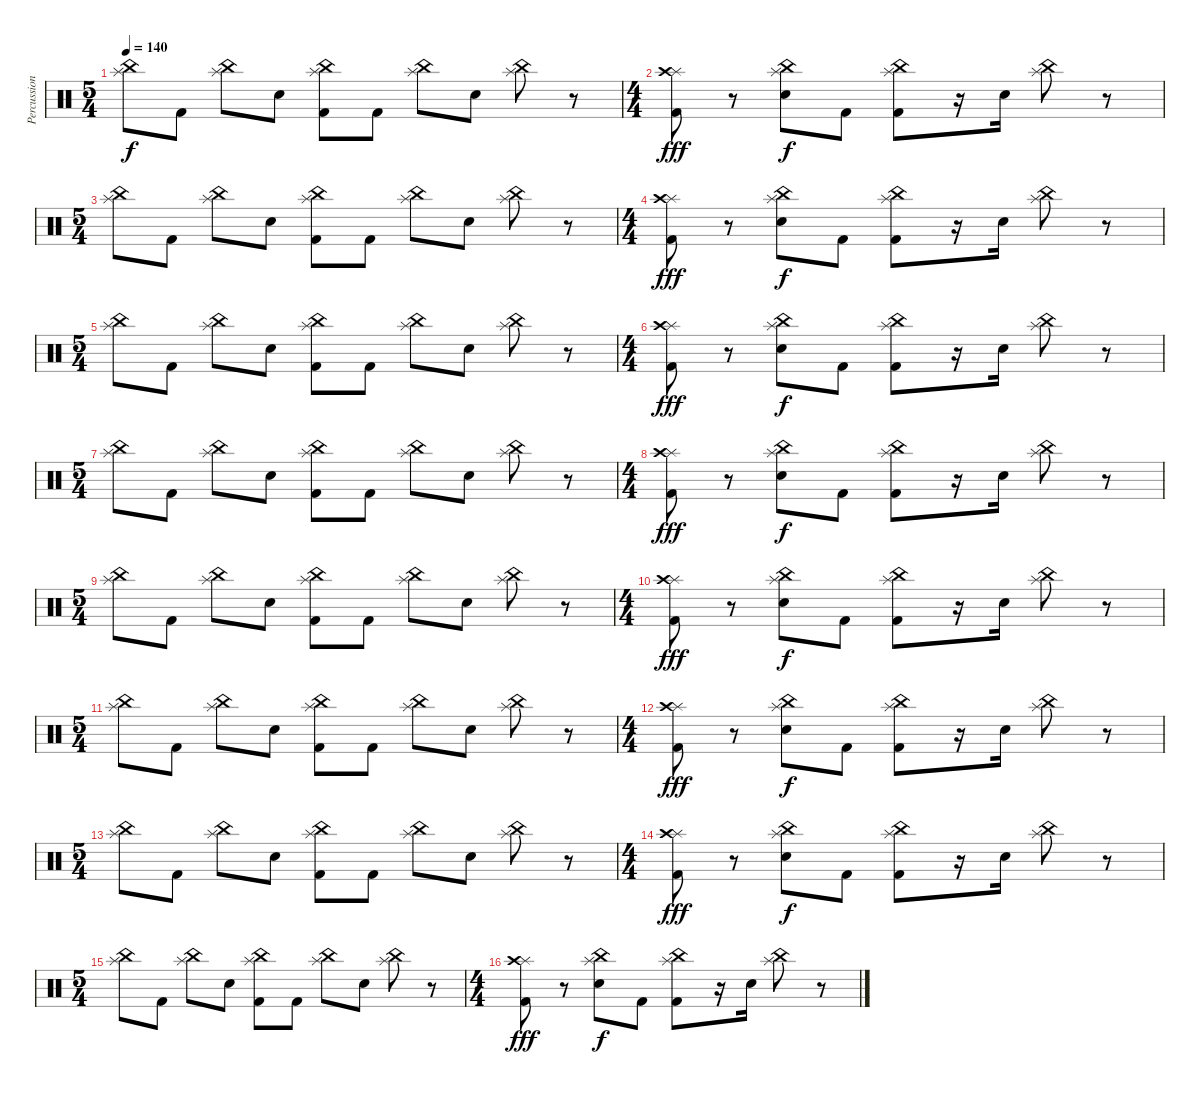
\track ("Percussion" "Percussion") {instrument percussion}
\staff {score}
\articulation defaults
\ts (5 4)
\tempo 140
\clef neutral
\ks c
("Splash (hit)" "China (hit)").8{dy f} "Kick (hit) 2".8 ("Splash (hit)" "China (hit)").8 "Electric Snare (hit)".8 ("Splash (hit)" "China (hit)" "Kick (hit) 2").8 "Kick (hit) 2".8 ("Splash (hit)" "China (hit)").8 "Electric Snare (hit)".8 ("Splash (hit)" "China (hit)").8 r.8 |
\ts (4 4)
("Splash (hit)" "Crash high (hit)" "Kick (hit) 2").8{dy fff} r.8 ("Splash (hit)" "China (hit)" "Electric Snare (hit)").8{dy f} "Kick (hit) 2".8 ("Splash (hit)" "China (hit)" "Kick (hit) 2").8 r.16 "Electric Snare (hit)".16 ("Splash (hit)" "China (hit)").8 r.8 |
\ts (5 4)
("Splash (hit)" "China (hit)").8 "Kick (hit) 2".8 ("Splash (hit)" "China (hit)").8 "Electric Snare (hit)".8 ("Splash (hit)" "China (hit)" "Kick (hit) 2").8 "Kick (hit) 2".8 ("Splash (hit)" "China (hit)").8 "Electric Snare (hit)".8 ("Splash (hit)" "China (hit)").8 r.8 |
\ts (4 4)
("Splash (hit)" "Crash high (hit)" "Kick (hit) 2").8{dy fff} r.8 ("Splash (hit)" "China (hit)" "Electric Snare (hit)").8{dy f} "Kick (hit) 2".8 ("Splash (hit)" "China (hit)" "Kick (hit) 2").8 r.16 "Electric Snare (hit)".16 ("Splash (hit)" "China (hit)").8 r.8 |
\ts (5 4)
("Splash (hit)" "China (hit)").8 "Kick (hit) 2".8 ("Splash (hit)" "China (hit)").8 "Electric Snare (hit)".8 ("Splash (hit)" "China (hit)" "Kick (hit) 2").8 "Kick (hit) 2".8 ("Splash (hit)" "China (hit)").8 "Electric Snare (hit)".8 ("Splash (hit)" "China (hit)").8 r.8 |
\ts (4 4)
("Splash (hit)" "Crash high (hit)" "Kick (hit) 2").8{dy fff} r.8 ("Splash (hit)" "China (hit)" "Electric Snare (hit)").8{dy f} "Kick (hit) 2".8 ("Splash (hit)" "China (hit)" "Kick (hit) 2").8 r.16 "Electric Snare (hit)".16 ("Splash (hit)" "China (hit)").8 r.8 |
\ts (5 4)
("Splash (hit)" "China (hit)").8 "Kick (hit) 2".8 ("Splash (hit)" "China (hit)").8 "Electric Snare (hit)".8 ("Splash (hit)" "China (hit)" "Kick (hit) 2").8 "Kick (hit) 2".8 ("Splash (hit)" "China (hit)").8 "Electric Snare (hit)".8 ("Splash (hit)" "China (hit)").8 r.8 |
\ts (4 4)
("Splash (hit)" "Crash high (hit)" "Kick (hit) 2").8{dy fff} r.8 ("Splash (hit)" "China (hit)" "Electric Snare (hit)").8{dy f} "Kick (hit) 2".8 ("Splash (hit)" "China (hit)" "Kick (hit) 2").8 r.16 "Electric Snare (hit)".16 ("Splash (hit)" "China (hit)").8 r.8 |
\ts (5 4)
("Splash (hit)" "China (hit)").8 "Kick (hit) 2".8 ("Splash (hit)" "China (hit)").8 "Electric Snare (hit)".8 ("Splash (hit)" "China (hit)" "Kick (hit) 2").8 "Kick (hit) 2".8 ("Splash (hit)" "China (hit)").8 "Electric Snare (hit)".8 ("Splash (hit)" "China (hit)").8 r.8 |
\ts (4 4)
("Splash (hit)" "Crash high (hit)" "Kick (hit) 2").8{dy fff} r.8 ("Splash (hit)" "China (hit)" "Electric Snare (hit)").8{dy f} "Kick (hit) 2".8 ("Splash (hit)" "China (hit)" "Kick (hit) 2").8 r.16 "Electric Snare (hit)".16 ("Splash (hit)" "China (hit)").8 r.8 |
\ts (5 4)
("Splash (hit)" "China (hit)").8 "Kick (hit) 2".8 ("Splash (hit)" "China (hit)").8 "Electric Snare (hit)".8 ("Splash (hit)" "China (hit)" "Kick (hit) 2").8 "Kick (hit) 2".8 ("Splash (hit)" "China (hit)").8 "Electric Snare (hit)".8 ("Splash (hit)" "China (hit)").8 r.8 |
\ts (4 4)
("Splash (hit)" "Crash high (hit)" "Kick (hit) 2").8{dy fff} r.8 ("Splash (hit)" "China (hit)" "Electric Snare (hit)").8{dy f} "Kick (hit) 2".8 ("Splash (hit)" "China (hit)" "Kick (hit) 2").8 r.16 "Electric Snare (hit)".16 ("Splash (hit)" "China (hit)").8 r.8 |
\ts (5 4)
("Splash (hit)" "China (hit)").8 "Kick (hit) 2".8 ("Splash (hit)" "China (hit)").8 "Electric Snare (hit)".8 ("Splash (hit)" "China (hit)" "Kick (hit) 2").8 "Kick (hit) 2".8 ("Splash (hit)" "China (hit)").8 "Electric Snare (hit)".8 ("Splash (hit)" "China (hit)").8 r.8 |
\ts (4 4)
("Splash (hit)" "Crash high (hit)" "Kick (hit) 2").8{dy fff} r.8 ("Splash (hit)" "China (hit)" "Electric Snare (hit)").8{dy f} "Kick (hit) 2".8 ("Splash (hit)" "China (hit)" "Kick (hit) 2").8 r.16 "Electric Snare (hit)".16 ("Splash (hit)" "China (hit)").8 r.8 |
\ts (5 4)
("Splash (hit)" "China (hit)").8 "Kick (hit) 2".8 ("Splash (hit)" "China (hit)").8 "Electric Snare (hit)".8 ("Splash (hit)" "China (hit)" "Kick (hit) 2").8 "Kick (hit) 2".8 ("Splash (hit)" "China (hit)").8 "Electric Snare (hit)".8 ("Splash (hit)" "China (hit)").8 r.8 |
\ts (4 4)
("Splash (hit)" "Crash high (hit)" "Kick (hit) 2").8{dy fff} r.8 ("Splash (hit)" "China (hit)" "Electric Snare (hit)").8{dy f} "Kick (hit) 2".8 ("Splash (hit)" "China (hit)" "Kick (hit) 2").8 r.16 "Electric Snare (hit)".16 ("Splash (hit)" "China (hit)").8 r.8
